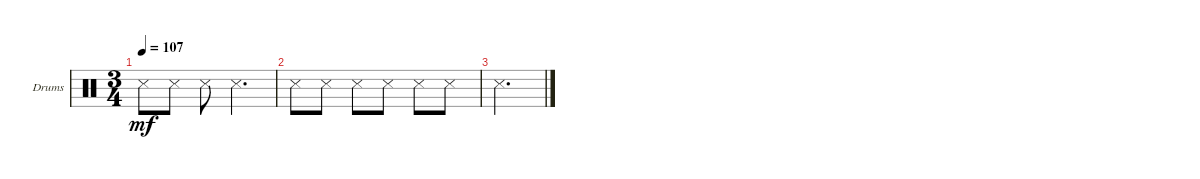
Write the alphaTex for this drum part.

\defaultSystemsLayout 4
\bracketExtendMode groupsimilarinstruments
\firstSystemTrackNameOrientation horizontal
\otherSystemsTrackNameOrientation horizontal
\track ("Drums" "Drums") {instrument percussion}
\staff {score}
\articulation defaults
\ts (3 4)
\tempo 107
\clef neutral
\ks c "Snare (side stick) 3".8{dy mf} "Snare (side stick) 3".8 "Snare (side stick) 3".8 "Snare (side stick) 3".4{d}
|
"Snare (side stick) 3".8 "Snare (side stick) 3".8 "Snare (side stick) 3".8 "Snare (side stick) 3".8 "Snare (side stick) 3".8 "Snare (side stick) 3".8 |
"Snare (side stick) 3".2{d}
